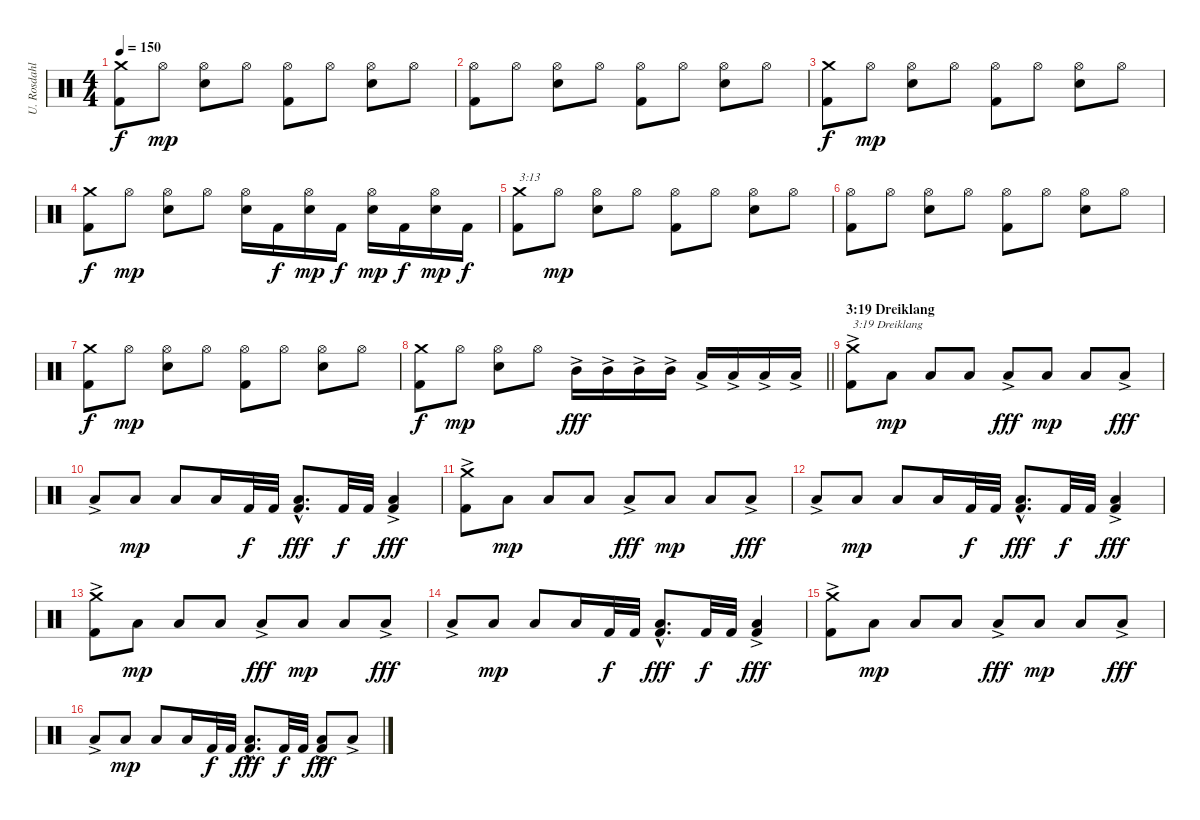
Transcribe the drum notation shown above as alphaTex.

\track ("U. Rosdahl" "U. Rosdahl") {instrument percussion}
\staff {score}
\articulation defaults
\ts (4 4)
\tempo 150
\clef neutral
\ks c
("Kick (hit) 2" "Crash medium (hit)").8{dy f} "Hi-Hat (open)".8{dy mp} ("Electric Snare (hit)" "Hi-Hat (open)").8 "Hi-Hat (open)".8 ("Kick (hit) 2" "Hi-Hat (open)").8 "Hi-Hat (open)".8 ("Electric Snare (hit)" "Hi-Hat (open)").8 "Hi-Hat (open)".8 |
("Kick (hit) 2" "Hi-Hat (open)").8 "Hi-Hat (open)".8 ("Electric Snare (hit)" "Hi-Hat (open)").8 "Hi-Hat (open)".8 ("Kick (hit) 2" "Hi-Hat (open)").8 "Hi-Hat (open)".8 ("Electric Snare (hit)" "Hi-Hat (open)").8 "Hi-Hat (open)".8 |
("Kick (hit) 2" "Crash medium (hit)").8{dy f} "Hi-Hat (open)".8{dy mp} ("Electric Snare (hit)" "Hi-Hat (open)").8 "Hi-Hat (open)".8 ("Kick (hit) 2" "Hi-Hat (open)").8 "Hi-Hat (open)".8 ("Electric Snare (hit)" "Hi-Hat (open)").8 "Hi-Hat (open)".8 |
("Kick (hit) 2" "Crash medium (hit)").8{dy f} "Hi-Hat (open)".8{dy mp} ("Electric Snare (hit)" "Hi-Hat (open)").8 "Hi-Hat (open)".8 ("Electric Snare (hit)" "Hi-Hat (open)").16 "Kick (hit) 2".16{dy f} ("Electric Snare (hit)" "Hi-Hat (open)").16{dy mp} "Kick (hit) 2".16{dy f} ("Electric Snare (hit)" "Hi-Hat (open)").16{dy mp} "Kick (hit) 2".16{dy f} ("Electric Snare (hit)" "Hi-Hat (open)").16{dy mp} "Kick (hit) 2".16{dy f} |
("Kick (hit) 2" "Crash medium (hit)").8{txt "3:13"} "Hi-Hat (open)".8{dy mp} ("Electric Snare (hit)" "Hi-Hat (open)").8 "Hi-Hat (open)".8 ("Kick (hit) 2" "Hi-Hat (open)").8 "Hi-Hat (open)".8 ("Electric Snare (hit)" "Hi-Hat (open)").8 "Hi-Hat (open)".8 |
("Kick (hit) 2" "Hi-Hat (open)").8 "Hi-Hat (open)".8 ("Electric Snare (hit)" "Hi-Hat (open)").8 "Hi-Hat (open)".8 ("Kick (hit) 2" "Hi-Hat (open)").8 "Hi-Hat (open)".8 ("Electric Snare (hit)" "Hi-Hat (open)").8 "Hi-Hat (open)".8 |
("Kick (hit) 2" "Crash medium (hit)").8{dy f} "Hi-Hat (open)".8{dy mp} ("Electric Snare (hit)" "Hi-Hat (open)").8 "Hi-Hat (open)".8 ("Kick (hit) 2" "Hi-Hat (open)").8 "Hi-Hat (open)".8 ("Electric Snare (hit)" "Hi-Hat (open)").8 "Hi-Hat (open)".8 |
\barLineRight lightlight
("Kick (hit) 2" "Crash medium (hit)").8{dy f} "Hi-Hat (open)".8{dy mp} ("Electric Snare (hit)" "Hi-Hat (open)").8 "Hi-Hat (open)".8 "Mid Tom (hit)"{ac}.16{dy fff} "Mid Tom (hit)"{ac}.16 "Mid Tom (hit)"{ac}.16 "Mid Tom (hit)"{ac}.16 "Low Tom (hit)"{ac}.16 "Low Tom (hit)"{ac}.16 "Low Tom (hit)"{ac}.16 "Low Tom (hit)"{ac}.16 |
\section ("" "3:19 Dreiklang")
("Kick (hit) 2" "Crash medium (hit)"{ac}).8{txt "3:19 Dreiklang"} "Low Tom (hit)".8{dy mp} "Low Tom (hit)".8 "Low Tom (hit)".8 "Low Tom (hit)"{ac}.8{dy fff} "Low Tom (hit)".8{dy mp} "Low Tom (hit)".8 "Low Tom (hit)"{ac}.8{dy fff} |
"Low Tom (hit)"{ac}.8 "Low Tom (hit)".8{dy mp} "Low Tom (hit)".8 "Low Tom (hit)".16 "Kick (hit) 2".32{dy f} "Kick (hit) 2".32 ("Kick (hit) 2"{hac} "Low Tom (hit)"{hac}).8{d dy fff} "Kick (hit) 2".32{dy f} "Kick (hit) 2".32 ("Kick (hit) 2" "Low Tom (hit)"{ac}).4{dy fff} |
("Kick (hit) 2" "Crash medium (hit)"{ac}).8 "Low Tom (hit)".8{dy mp} "Low Tom (hit)".8 "Low Tom (hit)".8 "Low Tom (hit)"{ac}.8{dy fff} "Low Tom (hit)".8{dy mp} "Low Tom (hit)".8 "Low Tom (hit)"{ac}.8{dy fff} |
"Low Tom (hit)"{ac}.8 "Low Tom (hit)".8{dy mp} "Low Tom (hit)".8 "Low Tom (hit)".16 "Kick (hit) 2".32{dy f} "Kick (hit) 2".32 ("Kick (hit) 2"{hac} "Low Tom (hit)"{hac}).8{d dy fff} "Kick (hit) 2".32{dy f} "Kick (hit) 2".32 ("Kick (hit) 2" "Low Tom (hit)"{ac}).4{dy fff} |
("Kick (hit) 2" "Crash medium (hit)"{ac}).8 "Low Tom (hit)".8{dy mp} "Low Tom (hit)".8 "Low Tom (hit)".8 "Low Tom (hit)"{ac}.8{dy fff} "Low Tom (hit)".8{dy mp} "Low Tom (hit)".8 "Low Tom (hit)"{ac}.8{dy fff} |
"Low Tom (hit)"{ac}.8 "Low Tom (hit)".8{dy mp} "Low Tom (hit)".8 "Low Tom (hit)".16 "Kick (hit) 2".32{dy f} "Kick (hit) 2".32 ("Kick (hit) 2"{hac} "Low Tom (hit)"{hac}).8{d dy fff} "Kick (hit) 2".32{dy f} "Kick (hit) 2".32 ("Kick (hit) 2" "Low Tom (hit)"{ac}).4{dy fff} |
("Kick (hit) 2" "Crash medium (hit)"{ac}).8 "Low Tom (hit)".8{dy mp} "Low Tom (hit)".8 "Low Tom (hit)".8 "Low Tom (hit)"{ac}.8{dy fff} "Low Tom (hit)".8{dy mp} "Low Tom (hit)".8 "Low Tom (hit)"{ac}.8{dy fff} |
"Low Tom (hit)"{ac}.8 "Low Tom (hit)".8{dy mp} "Low Tom (hit)".8 "Low Tom (hit)".16 "Kick (hit) 2".32{dy f} "Kick (hit) 2".32 ("Kick (hit) 2"{hac} "Low Tom (hit)"{hac}).8{d dy fff} "Kick (hit) 2".32{dy f} "Kick (hit) 2".32 ("Kick (hit) 2" "Low Tom (hit)"{ac}).8{dy fff} "Low Tom (hit)"{ac}.8
